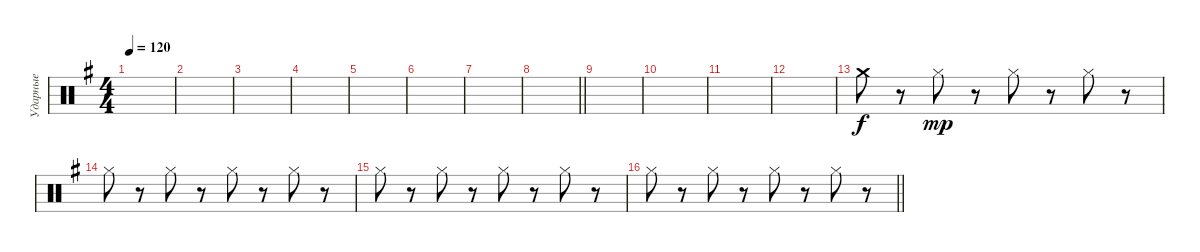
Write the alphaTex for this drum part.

\track ("Ударные" "Ударные") {instrument percussion}
\staff {score}
\articulation defaults
\ts (4 4)
\section ("" " ")
\tempo 120
\clef neutral
\ks eminor
|
|
|
|
|
|
|
\barLineRight lightlight
|
|
|
|
|
"Crash medium (hit)".8{dy f} r.8 "Hi-Hat (closed)".8{dy mp} r.8 "Hi-Hat (closed)".8 r.8 "Hi-Hat (closed)".8 r.8 |
"Hi-Hat (closed)".8 r.8 "Hi-Hat (closed)".8 r.8 "Hi-Hat (closed)".8 r.8 "Hi-Hat (closed)".8 r.8 |
"Hi-Hat (closed)".8 r.8 "Hi-Hat (closed)".8 r.8 "Hi-Hat (closed)".8 r.8 "Hi-Hat (closed)".8 r.8 |
\barLineRight lightlight "Hi-Hat (closed)".8
r.8 "Hi-Hat (closed)".8 r.8 "Hi-Hat (closed)".8 r.8 "Hi-Hat (closed)".8 r.8
